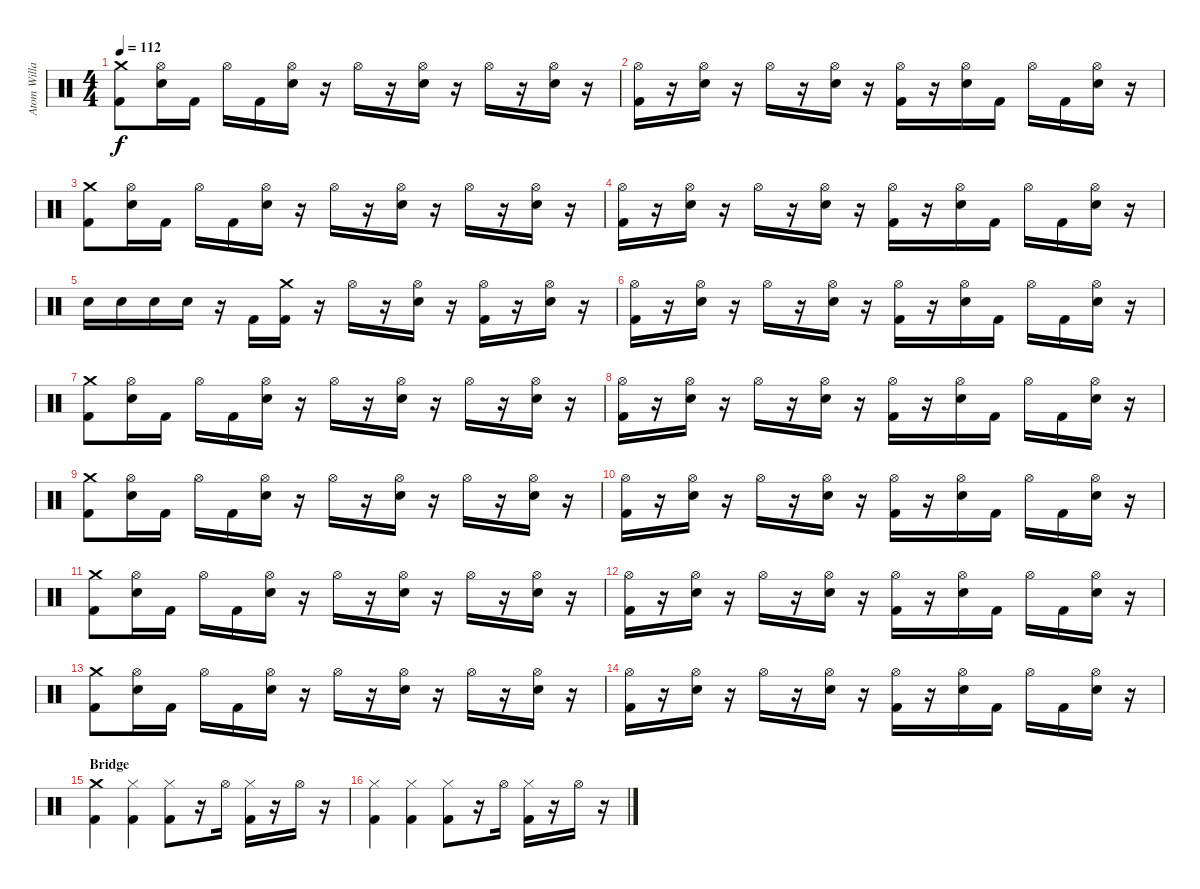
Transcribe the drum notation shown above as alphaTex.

\track ("Atom Willard Drums" "Atom Willa") {instrument percussion}
\staff {score}
\articulation defaults
\ts (4 4)
\tempo 112
\clef neutral
\ks c
("Crash medium (hit)" "Kick (hit) 2").8{dy f} ("Hi-Hat (open)" "Electric Snare (hit)").16 "Kick (hit) 2".16 "Hi-Hat (open)".16 "Kick (hit) 2".16 ("Hi-Hat (open)" "Electric Snare (hit)").16 r.16 "Hi-Hat (open)".16 r.16 ("Hi-Hat (open)" "Electric Snare (hit)").16 r.16 "Hi-Hat (open)".16 r.16 ("Hi-Hat (open)" "Electric Snare (hit)").16 r.16 |
("Hi-Hat (open)" "Kick (hit) 2").16 r.16 ("Hi-Hat (open)" "Electric Snare (hit)").16 r.16 "Hi-Hat (open)".16 r.16 ("Hi-Hat (open)" "Electric Snare (hit)").16 r.16 ("Hi-Hat (open)" "Kick (hit) 2").16 r.16 ("Hi-Hat (open)" "Electric Snare (hit)").16 "Kick (hit) 2".16 "Hi-Hat (open)".16 "Kick (hit) 2".16 ("Hi-Hat (open)" "Electric Snare (hit)").16 r.16 |
("Crash medium (hit)" "Kick (hit) 2").8 ("Hi-Hat (open)" "Electric Snare (hit)").16 "Kick (hit) 2".16 "Hi-Hat (open)".16 "Kick (hit) 2".16 ("Hi-Hat (open)" "Electric Snare (hit)").16 r.16 "Hi-Hat (open)".16 r.16 ("Hi-Hat (open)" "Electric Snare (hit)").16 r.16 "Hi-Hat (open)".16 r.16 ("Hi-Hat (open)" "Electric Snare (hit)").16 r.16 |
("Hi-Hat (open)" "Kick (hit) 2").16 r.16 ("Hi-Hat (open)" "Electric Snare (hit)").16 r.16 "Hi-Hat (open)".16 r.16 ("Hi-Hat (open)" "Electric Snare (hit)").16 r.16 ("Hi-Hat (open)" "Kick (hit) 2").16 r.16 ("Hi-Hat (open)" "Electric Snare (hit)").16 "Kick (hit) 2".16 "Hi-Hat (open)".16 "Kick (hit) 2".16 ("Hi-Hat (open)" "Electric Snare (hit)").16 r.16 |
"Electric Snare (hit)".16 "Electric Snare (hit)".16 "Electric Snare (hit)".16 "Electric Snare (hit)".16 r.16 "Kick (hit) 2".16 ("Crash medium (hit)" "Kick (hit) 2").16 r.16 "Hi-Hat (open)".16 r.16 ("Hi-Hat (open)" "Electric Snare (hit)").16 r.16 ("Hi-Hat (open)" "Kick (hit) 2").16 r.16 ("Hi-Hat (open)" "Electric Snare (hit)").16 r.16 |
("Hi-Hat (open)" "Kick (hit) 2").16 r.16 ("Hi-Hat (open)" "Electric Snare (hit)").16 r.16 "Hi-Hat (open)".16 r.16 ("Hi-Hat (open)" "Electric Snare (hit)").16 r.16 ("Hi-Hat (open)" "Kick (hit) 2").16 r.16 ("Hi-Hat (open)" "Electric Snare (hit)").16 "Kick (hit) 2".16 "Hi-Hat (open)".16 "Kick (hit) 2".16 ("Hi-Hat (open)" "Electric Snare (hit)").16 r.16 |
("Crash medium (hit)" "Kick (hit) 2").8 ("Hi-Hat (open)" "Electric Snare (hit)").16 "Kick (hit) 2".16 "Hi-Hat (open)".16 "Kick (hit) 2".16 ("Hi-Hat (open)" "Electric Snare (hit)").16 r.16 "Hi-Hat (open)".16 r.16 ("Hi-Hat (open)" "Electric Snare (hit)").16 r.16 "Hi-Hat (open)".16 r.16 ("Hi-Hat (open)" "Electric Snare (hit)").16 r.16 |
("Hi-Hat (open)" "Kick (hit) 2").16 r.16 ("Hi-Hat (open)" "Electric Snare (hit)").16 r.16 "Hi-Hat (open)".16 r.16 ("Hi-Hat (open)" "Electric Snare (hit)").16 r.16 ("Hi-Hat (open)" "Kick (hit) 2").16 r.16 ("Hi-Hat (open)" "Electric Snare (hit)").16 "Kick (hit) 2".16 "Hi-Hat (open)".16 "Kick (hit) 2".16 ("Hi-Hat (open)" "Electric Snare (hit)").16 r.16 |
("Crash medium (hit)" "Kick (hit) 2").8 ("Hi-Hat (open)" "Electric Snare (hit)").16 "Kick (hit) 2".16 "Hi-Hat (open)".16 "Kick (hit) 2".16 ("Hi-Hat (open)" "Electric Snare (hit)").16 r.16 "Hi-Hat (open)".16 r.16 ("Hi-Hat (open)" "Electric Snare (hit)").16 r.16 "Hi-Hat (open)".16 r.16 ("Hi-Hat (open)" "Electric Snare (hit)").16 r.16 |
("Hi-Hat (open)" "Kick (hit) 2").16 r.16 ("Hi-Hat (open)" "Electric Snare (hit)").16 r.16 "Hi-Hat (open)".16 r.16 ("Hi-Hat (open)" "Electric Snare (hit)").16 r.16 ("Hi-Hat (open)" "Kick (hit) 2").16 r.16 ("Hi-Hat (open)" "Electric Snare (hit)").16 "Kick (hit) 2".16 "Hi-Hat (open)".16 "Kick (hit) 2".16 ("Hi-Hat (open)" "Electric Snare (hit)").16 r.16 |
("Crash medium (hit)" "Kick (hit) 2").8 ("Hi-Hat (open)" "Electric Snare (hit)").16 "Kick (hit) 2".16 "Hi-Hat (open)".16 "Kick (hit) 2".16 ("Hi-Hat (open)" "Electric Snare (hit)").16 r.16 "Hi-Hat (open)".16 r.16 ("Hi-Hat (open)" "Electric Snare (hit)").16 r.16 "Hi-Hat (open)".16 r.16 ("Hi-Hat (open)" "Electric Snare (hit)").16 r.16 |
("Hi-Hat (open)" "Kick (hit) 2").16 r.16 ("Hi-Hat (open)" "Electric Snare (hit)").16 r.16 "Hi-Hat (open)".16 r.16 ("Hi-Hat (open)" "Electric Snare (hit)").16 r.16 ("Hi-Hat (open)" "Kick (hit) 2").16 r.16 ("Hi-Hat (open)" "Electric Snare (hit)").16 "Kick (hit) 2".16 "Hi-Hat (open)".16 "Kick (hit) 2".16 ("Hi-Hat (open)" "Electric Snare (hit)").16 r.16 |
("Crash medium (hit)" "Kick (hit) 2").8 ("Hi-Hat (open)" "Electric Snare (hit)").16 "Kick (hit) 2".16 "Hi-Hat (open)".16 "Kick (hit) 2".16 ("Hi-Hat (open)" "Electric Snare (hit)").16 r.16 "Hi-Hat (open)".16 r.16 ("Hi-Hat (open)" "Electric Snare (hit)").16 r.16 "Hi-Hat (open)".16 r.16 ("Hi-Hat (open)" "Electric Snare (hit)").16 r.16 |
("Hi-Hat (open)" "Kick (hit) 2").16 r.16 ("Hi-Hat (open)" "Electric Snare (hit)").16 r.16 "Hi-Hat (open)".16 r.16 ("Hi-Hat (open)" "Electric Snare (hit)").16 r.16 ("Hi-Hat (open)" "Kick (hit) 2").16 r.16 ("Hi-Hat (open)" "Electric Snare (hit)").16 "Kick (hit) 2".16 "Hi-Hat (open)".16 "Kick (hit) 2".16 ("Hi-Hat (open)" "Electric Snare (hit)").16 r.16 |
\section ("" "Bridge")
("Crash medium (hit)" "Kick (hit) 2").4 ("Hi-Hat (closed)" "Kick (hit) 2").4 ("Hi-Hat (closed)" "Kick (hit) 2").8 r.16 "Hi-Hat (open)".16 ("Hi-Hat (closed)" "Kick (hit) 2").16 r.16 "Hi-Hat (open)".16 r.16 |
("Hi-Hat (closed)" "Kick (hit) 2").4 ("Hi-Hat (closed)" "Kick (hit) 2").4 ("Hi-Hat (closed)" "Kick (hit) 2").8 r.16 "Hi-Hat (open)".16 ("Hi-Hat (closed)" "Kick (hit) 2").16 r.16 "Hi-Hat (open)".16 r.16
